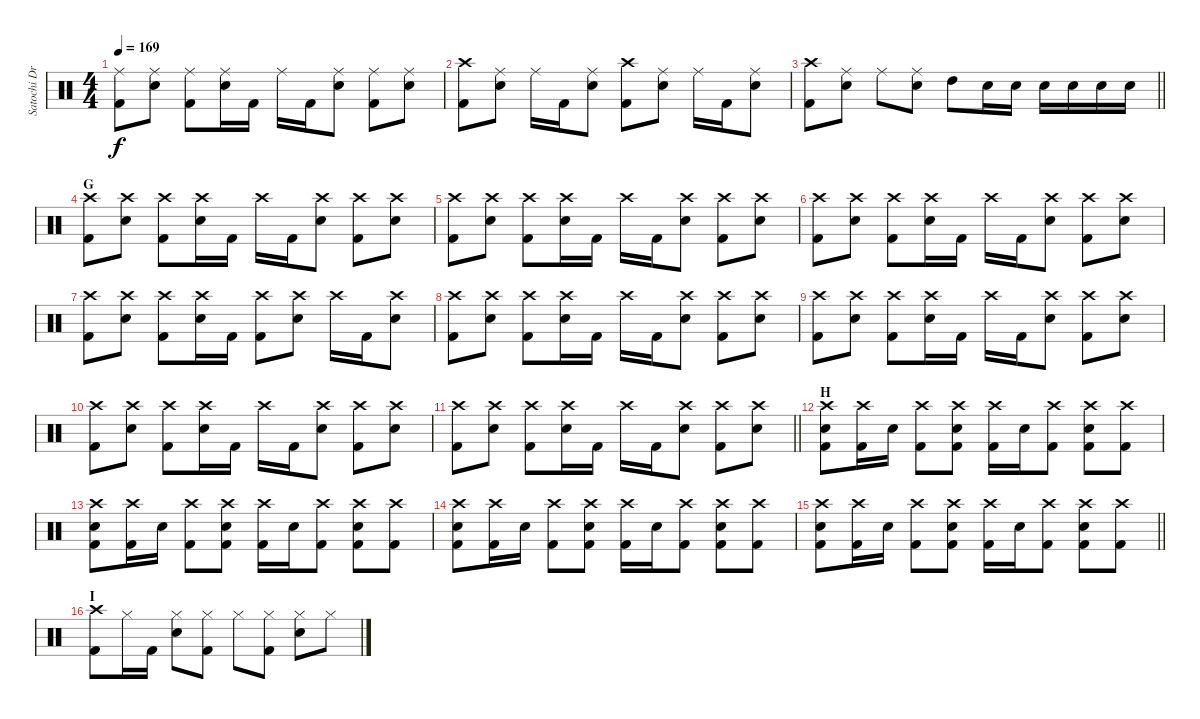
\track ("Satochi Drums" "Satochi Dr") {instrument percussion}
\staff {score}
\articulation defaults
\ts (4 4)
\tempo 169
\clef neutral
\ks c
("Ride (middle)" "Kick (hit) 2").8{dy f} ("Ride (middle)" "Snare (hit) 2").8 ("Ride (middle)" "Kick (hit) 2").8 ("Ride (middle)" "Snare (hit) 2").16 "Kick (hit) 2".16 "Ride (middle)".16 "Kick (hit) 2".16 ("Ride (middle)" "Snare (hit) 2").8 ("Ride (middle)" "Kick (hit) 2").8 ("Ride (middle)" "Snare (hit) 2").8 |
("Crash high (hit)" "Kick (hit) 2").8 ("Ride (middle)" "Snare (hit) 2").8 "Ride (middle)".16 "Kick (hit) 2".16 ("Ride (middle)" "Snare (hit) 2").8 ("Crash high (hit)" "Kick (hit) 2").8 ("Ride (middle)" "Snare (hit) 2").8 "Ride (middle)".16 "Kick (hit) 2".16 ("Ride (middle)" "Snare (hit) 2").8 |
\barLineRight lightlight
("Crash high (hit)" "Kick (hit) 2").8 ("Ride (middle)" "Snare (hit) 2").8 "Ride (middle)".8 ("Ride (middle)" "Snare (hit) 2").8 "High Tom (hit)".8 "Snare (hit) 2".16 "Snare (hit) 2".16 "Snare (hit) 2".16 "Snare (hit) 2".16 "Snare (hit) 2".16 "Snare (hit) 2".16 |
\section ("" "G")
("Crash high (hit)" "Kick (hit) 2").8 ("Crash high (hit)" "Snare (hit) 2").8 ("Crash high (hit)" "Kick (hit) 2").8 ("Crash high (hit)" "Snare (hit) 2").16 "Kick (hit) 2".16 "Crash high (hit)".16 "Kick (hit) 2".16 ("Crash high (hit)" "Snare (hit) 2").8 ("Crash high (hit)" "Kick (hit) 2").8 ("Crash high (hit)" "Snare (hit) 2").8 |
("Crash high (hit)" "Kick (hit) 2").8 ("Crash high (hit)" "Snare (hit) 2").8 ("Crash high (hit)" "Kick (hit) 2").8 ("Crash high (hit)" "Snare (hit) 2").16 "Kick (hit) 2".16 "Crash high (hit)".16 "Kick (hit) 2".16 ("Crash high (hit)" "Snare (hit) 2").8 ("Crash high (hit)" "Kick (hit) 2").8 ("Crash high (hit)" "Snare (hit) 2").8 |
("Crash high (hit)" "Kick (hit) 2").8 ("Crash high (hit)" "Snare (hit) 2").8 ("Crash high (hit)" "Kick (hit) 2").8 ("Crash high (hit)" "Snare (hit) 2").16 "Kick (hit) 2".16 "Crash high (hit)".16 "Kick (hit) 2".16 ("Crash high (hit)" "Snare (hit) 2").8 ("Crash high (hit)" "Kick (hit) 2").8 ("Crash high (hit)" "Snare (hit) 2").8 |
("Crash high (hit)" "Kick (hit) 2").8 ("Crash high (hit)" "Snare (hit) 2").8 ("Crash high (hit)" "Kick (hit) 2").8 ("Crash high (hit)" "Snare (hit) 2").16 "Kick (hit) 2".16 ("Crash high (hit)" "Kick (hit) 2").8 ("Crash high (hit)" "Snare (hit) 2").8 "Crash high (hit)".16 "Kick (hit) 2".16 ("Crash high (hit)" "Snare (hit) 2").8 |
("Crash high (hit)" "Kick (hit) 2").8 ("Crash high (hit)" "Snare (hit) 2").8 ("Crash high (hit)" "Kick (hit) 2").8 ("Crash high (hit)" "Snare (hit) 2").16 "Kick (hit) 2".16 "Crash high (hit)".16 "Kick (hit) 2".16 ("Crash high (hit)" "Snare (hit) 2").8 ("Crash high (hit)" "Kick (hit) 2").8 ("Crash high (hit)" "Snare (hit) 2").8 |
("Crash high (hit)" "Kick (hit) 2").8 ("Crash high (hit)" "Snare (hit) 2").8 ("Crash high (hit)" "Kick (hit) 2").8 ("Crash high (hit)" "Snare (hit) 2").16 "Kick (hit) 2".16 "Crash high (hit)".16 "Kick (hit) 2".16 ("Crash high (hit)" "Snare (hit) 2").8 ("Crash high (hit)" "Kick (hit) 2").8 ("Crash high (hit)" "Snare (hit) 2").8 |
("Crash high (hit)" "Kick (hit) 2").8 ("Crash high (hit)" "Snare (hit) 2").8 ("Crash high (hit)" "Kick (hit) 2").8 ("Crash high (hit)" "Snare (hit) 2").16 "Kick (hit) 2".16 "Crash high (hit)".16 "Kick (hit) 2".16 ("Crash high (hit)" "Snare (hit) 2").8 ("Crash high (hit)" "Kick (hit) 2").8 ("Crash high (hit)" "Snare (hit) 2").8 |
\barLineRight lightlight
("Crash high (hit)" "Kick (hit) 2").8 ("Crash high (hit)" "Snare (hit) 2").8 ("Crash high (hit)" "Kick (hit) 2").8 ("Crash high (hit)" "Snare (hit) 2").16 "Kick (hit) 2".16 "Crash high (hit)".16 "Kick (hit) 2".16 ("Crash high (hit)" "Snare (hit) 2").8 ("Crash high (hit)" "Kick (hit) 2").8 ("Crash high (hit)" "Snare (hit) 2").8 |
\section ("" "H")
("Crash high (hit)" "Snare (hit) 2" "Kick (hit) 2").8 ("Crash high (hit)" "Kick (hit) 2").16 "Snare (hit) 2".16 ("Crash high (hit)" "Kick (hit) 2").8 ("Crash high (hit)" "Snare (hit) 2" "Kick (hit) 2").8 ("Crash high (hit)" "Kick (hit) 2").16 "Snare (hit) 2".16 ("Crash high (hit)" "Kick (hit) 2").8 ("Crash high (hit)" "Snare (hit) 2" "Kick (hit) 2").8 ("Crash high (hit)" "Kick (hit) 2").8 |
("Crash high (hit)" "Snare (hit) 2" "Kick (hit) 2").8 ("Crash high (hit)" "Kick (hit) 2").16 "Snare (hit) 2".16 ("Crash high (hit)" "Kick (hit) 2").8 ("Crash high (hit)" "Snare (hit) 2" "Kick (hit) 2").8 ("Crash high (hit)" "Kick (hit) 2").16 "Snare (hit) 2".16 ("Crash high (hit)" "Kick (hit) 2").8 ("Crash high (hit)" "Snare (hit) 2" "Kick (hit) 2").8 ("Crash high (hit)" "Kick (hit) 2").8 |
("Crash high (hit)" "Snare (hit) 2" "Kick (hit) 2").8 ("Crash high (hit)" "Kick (hit) 2").16 "Snare (hit) 2".16 ("Crash high (hit)" "Kick (hit) 2").8 ("Crash high (hit)" "Snare (hit) 2" "Kick (hit) 2").8 ("Crash high (hit)" "Kick (hit) 2").16 "Snare (hit) 2".16 ("Crash high (hit)" "Kick (hit) 2").8 ("Crash high (hit)" "Snare (hit) 2" "Kick (hit) 2").8 ("Crash high (hit)" "Kick (hit) 2").8 |
\barLineRight lightlight
("Crash high (hit)" "Snare (hit) 2" "Kick (hit) 2").8 ("Crash high (hit)" "Kick (hit) 2").16 "Snare (hit) 2".16 ("Crash high (hit)" "Kick (hit) 2").8 ("Crash high (hit)" "Snare (hit) 2" "Kick (hit) 2").8 ("Crash high (hit)" "Kick (hit) 2").16 "Snare (hit) 2".16 ("Crash high (hit)" "Kick (hit) 2").8 ("Crash high (hit)" "Snare (hit) 2" "Kick (hit) 2").8 ("Crash high (hit)" "Kick (hit) 2").8 |
\section ("" "I")
("Crash high (hit)" "Kick (hit) 2").8 "Hi-Hat (closed)".16 "Kick (hit) 2".16 ("Hi-Hat (closed)" "Snare (hit) 2").8 ("Hi-Hat (closed)" "Kick (hit) 2").8 "Hi-Hat (closed)".8 ("Hi-Hat (closed)" "Kick (hit) 2").8 ("Hi-Hat (closed)" "Snare (hit) 2").8 "Hi-Hat (closed)".8
